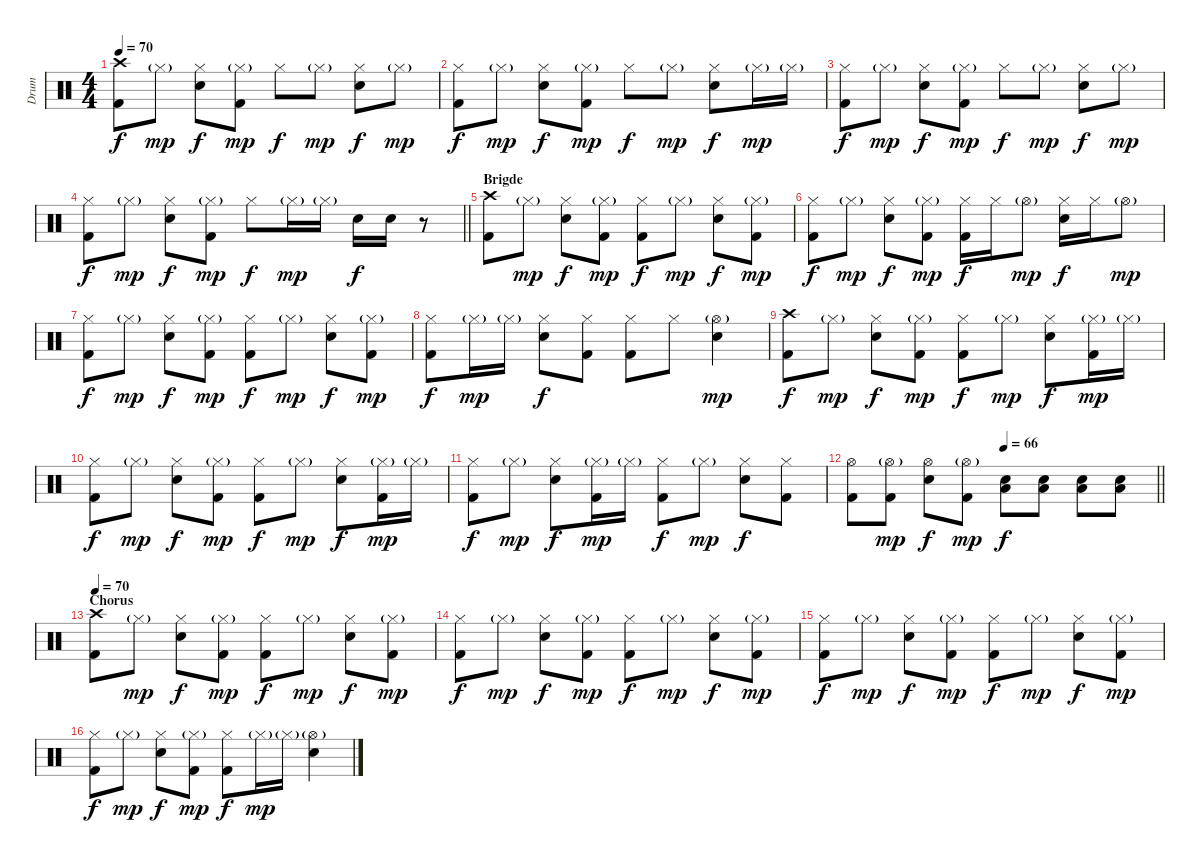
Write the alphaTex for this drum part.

\track ("Drum" "Drum") {instrument percussion}
\staff {score}
\articulation defaults
\ts (4 4)
\tempo 70
\clef neutral
\ks c
("Crash high (hit)" "Kick (hit) 2").8{dy f} "Hi-Hat (closed)"{g}.8{dy mp} ("Hi-Hat (closed)" "Snare (hit) 2").8{dy f} ("Hi-Hat (closed)"{g} "Kick (hit) 2").8{dy mp} "Hi-Hat (closed)".8{dy f} "Hi-Hat (closed)"{g}.8{dy mp} ("Hi-Hat (closed)" "Snare (hit) 2").8{dy f} "Hi-Hat (closed)"{g}.8{dy mp} |
("Hi-Hat (closed)" "Kick (hit) 2").8{dy f} "Hi-Hat (closed)"{g}.8{dy mp} ("Hi-Hat (closed)" "Snare (hit) 2").8{dy f} ("Hi-Hat (closed)"{g} "Kick (hit) 2").8{dy mp} "Hi-Hat (closed)".8{dy f} "Hi-Hat (closed)"{g}.8{dy mp} ("Hi-Hat (closed)" "Snare (hit) 2").8{dy f} "Hi-Hat (closed)"{g}.16{dy mp} "Hi-Hat (closed)"{g}.16 |
("Hi-Hat (closed)" "Kick (hit) 2").8{dy f} "Hi-Hat (closed)"{g}.8{dy mp} ("Hi-Hat (closed)" "Snare (hit) 2").8{dy f} ("Hi-Hat (closed)"{g} "Kick (hit) 2").8{dy mp} "Hi-Hat (closed)".8{dy f} "Hi-Hat (closed)"{g}.8{dy mp} ("Hi-Hat (closed)" "Snare (hit) 2").8{dy f} "Hi-Hat (closed)"{g}.8{dy mp} |
\barLineRight lightlight
("Hi-Hat (closed)" "Kick (hit) 2").8{dy f} "Hi-Hat (closed)"{g}.8{dy mp} ("Hi-Hat (closed)" "Snare (hit) 2").8{dy f} ("Hi-Hat (closed)"{g} "Kick (hit) 2").8{dy mp} "Hi-Hat (closed)".8{dy f} "Hi-Hat (closed)"{g}.16{dy mp} "Hi-Hat (closed)"{g}.16 "Snare (hit) 2".16{dy f} "Snare (hit) 2".16 r.8 |
\section ("" "Brigde")
("Crash high (hit)" "Kick (hit) 2").8 "Hi-Hat (closed)"{g}.8{dy mp} ("Hi-Hat (closed)" "Snare (hit) 2").8{dy f} ("Hi-Hat (closed)"{g} "Kick (hit) 2").8{dy mp} ("Hi-Hat (closed)" "Kick (hit) 2").8{dy f} "Hi-Hat (closed)"{g}.8{dy mp} ("Hi-Hat (closed)" "Snare (hit) 2").8{dy f} ("Hi-Hat (closed)"{g} "Kick (hit) 2").8{dy mp} |
("Hi-Hat (closed)" "Kick (hit) 2").8{dy f} "Hi-Hat (closed)"{g}.8{dy mp} ("Hi-Hat (closed)" "Snare (hit) 2").8{dy f} ("Hi-Hat (closed)"{g} "Kick (hit) 2").8{dy mp} ("Hi-Hat (closed)" "Kick (hit) 2").16{dy f} "Hi-Hat (closed)".16 "Hi-Hat (open)"{g}.8{dy mp} ("Hi-Hat (closed)" "Snare (hit) 2").16{dy f} "Hi-Hat (closed)".16 "Hi-Hat (open)"{g}.8{dy mp} |
("Hi-Hat (closed)" "Kick (hit) 2").8{dy f} "Hi-Hat (closed)"{g}.8{dy mp} ("Hi-Hat (closed)" "Snare (hit) 2").8{dy f} ("Hi-Hat (closed)"{g} "Kick (hit) 2").8{dy mp} ("Hi-Hat (closed)" "Kick (hit) 2").8{dy f} "Hi-Hat (closed)"{g}.8{dy mp} ("Hi-Hat (closed)" "Snare (hit) 2").8{dy f} ("Hi-Hat (closed)"{g} "Kick (hit) 2").8{dy mp} |
("Hi-Hat (closed)" "Kick (hit) 2").8{dy f} "Hi-Hat (closed)"{g}.16{dy mp} "Hi-Hat (closed)"{g}.16 ("Hi-Hat (closed)" "Snare (hit) 2").8{dy f} ("Hi-Hat (closed)" "Kick (hit) 2").8 ("Hi-Hat (closed)" "Kick (hit) 2").8 "Hi-Hat (closed)".8 ("Hi-Hat (open)"{g} "Snare (hit) 2").4{dy mp} |
("Crash high (hit)" "Kick (hit) 2").8{dy f} "Hi-Hat (closed)"{g}.8{dy mp} ("Hi-Hat (closed)" "Snare (hit) 2").8{dy f} ("Hi-Hat (closed)"{g} "Kick (hit) 2").8{dy mp} ("Hi-Hat (closed)" "Kick (hit) 2").8{dy f} "Hi-Hat (closed)"{g}.8{dy mp} ("Hi-Hat (closed)" "Snare (hit) 2").8{dy f} ("Hi-Hat (closed)"{g} "Kick (hit) 2").16{dy mp} "Hi-Hat (closed)"{g}.16 |
("Hi-Hat (closed)" "Kick (hit) 2").8{dy f} "Hi-Hat (closed)"{g}.8{dy mp} ("Hi-Hat (closed)" "Snare (hit) 2").8{dy f} ("Hi-Hat (closed)"{g} "Kick (hit) 2").8{dy mp} ("Hi-Hat (closed)" "Kick (hit) 2").8{dy f} "Hi-Hat (closed)"{g}.8{dy mp} ("Hi-Hat (closed)" "Snare (hit) 2").8{dy f} ("Hi-Hat (closed)"{g} "Kick (hit) 2").16{dy mp} "Hi-Hat (closed)"{g}.16 |
("Hi-Hat (closed)" "Kick (hit) 2").8{dy f} "Hi-Hat (closed)"{g}.8{dy mp} ("Hi-Hat (closed)" "Snare (hit) 2").8{dy f} ("Hi-Hat (closed)"{g} "Kick (hit) 2").16{dy mp} "Hi-Hat (closed)"{g}.16 ("Hi-Hat (closed)" "Kick (hit) 2").8{dy f} "Hi-Hat (closed)"{g}.8{dy mp} ("Hi-Hat (closed)" "Snare (hit) 2").8{dy f} ("Hi-Hat (closed)" "Kick (hit) 2").8 |
\tempo (66 0.5)
\barLineRight lightlight
("Hi-Hat (open)" "Kick (hit) 2").8 ("Hi-Hat (open)"{g} "Kick (hit) 2").8{dy mp} ("Hi-Hat (open)" "Snare (hit) 2").8{dy f} ("Hi-Hat (open)"{g} "Kick (hit) 2").8{dy mp} ("Low Floor Tom (hit)" "Snare (hit) 2").8{dy f} ("Low Floor Tom (hit)" "Snare (hit) 2").8 ("Low Floor Tom (hit)" "Snare (hit) 2").8 ("Low Floor Tom (hit)" "Snare (hit) 2").8 |
\section ("" "Chorus")
\tempo 70
("Crash high (hit)" "Kick (hit) 2").8 "Hi-Hat (closed)"{g}.8{dy mp} ("Hi-Hat (closed)" "Snare (hit) 2").8{dy f} ("Hi-Hat (closed)"{g} "Kick (hit) 2").8{dy mp} ("Hi-Hat (closed)" "Kick (hit) 2").8{dy f} "Hi-Hat (closed)"{g}.8{dy mp} ("Hi-Hat (closed)" "Snare (hit) 2").8{dy f} ("Hi-Hat (closed)"{g} "Kick (hit) 2").8{dy mp} |
("Hi-Hat (closed)" "Kick (hit) 2").8{dy f} "Hi-Hat (closed)"{g}.8{dy mp} ("Hi-Hat (closed)" "Snare (hit) 2").8{dy f} ("Hi-Hat (closed)"{g} "Kick (hit) 2").8{dy mp} ("Hi-Hat (closed)" "Kick (hit) 2").8{dy f} "Hi-Hat (closed)"{g}.8{dy mp} ("Hi-Hat (closed)" "Snare (hit) 2").8{dy f} ("Hi-Hat (closed)"{g} "Kick (hit) 2").8{dy mp} |
("Hi-Hat (closed)" "Kick (hit) 2").8{dy f} "Hi-Hat (closed)"{g}.8{dy mp} ("Hi-Hat (closed)" "Snare (hit) 2").8{dy f} ("Hi-Hat (closed)"{g} "Kick (hit) 2").8{dy mp} ("Hi-Hat (closed)" "Kick (hit) 2").8{dy f} "Hi-Hat (closed)"{g}.8{dy mp} ("Hi-Hat (closed)" "Snare (hit) 2").8{dy f} ("Hi-Hat (closed)"{g} "Kick (hit) 2").8{dy mp} |
("Hi-Hat (closed)" "Kick (hit) 2").8{dy f} "Hi-Hat (closed)"{g}.8{dy mp} ("Hi-Hat (closed)" "Snare (hit) 2").8{dy f} ("Hi-Hat (closed)"{g} "Kick (hit) 2").8{dy mp} ("Hi-Hat (closed)" "Kick (hit) 2").8{dy f} "Hi-Hat (closed)"{g}.16{dy mp} "Hi-Hat (closed)"{g}.16 ("Hi-Hat (open)"{g} "Snare (hit) 2").4
